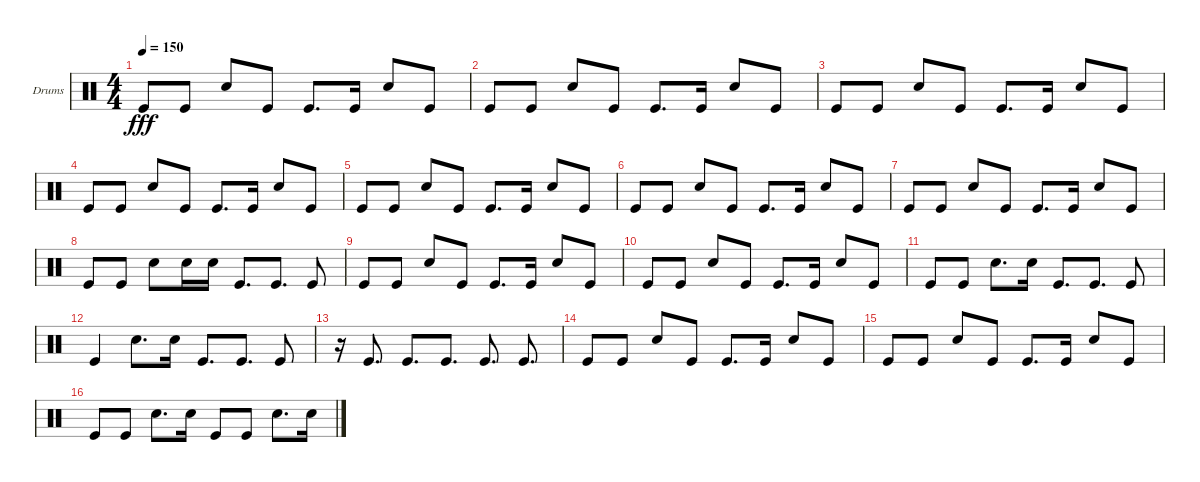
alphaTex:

\defaultSystemsLayout 4
\bracketExtendMode groupsimilarinstruments
\firstSystemTrackNameOrientation horizontal
\otherSystemsTrackNameOrientation horizontal
\track ("Helders" "Drums") {instrument percussion}
\staff {score}
\articulation defaults
\ts (4 4)
\tempo 150
\clef neutral
\ks c "Kick (hit)".8{dy fff} "Kick (hit)".8 "Snare (hit) 2".8 "Kick (hit)".8 "Kick (hit)".8{d} "Kick (hit)".16 "Snare (hit) 2".8 "Kick (hit)".8
|
"Kick (hit)".8 "Kick (hit)".8 "Snare (hit) 2".8 "Kick (hit)".8 "Kick (hit)".8{d} "Kick (hit)".16 "Snare (hit) 2".8 "Kick (hit)".8 |
"Kick (hit)".8 "Kick (hit)".8 "Snare (hit) 2".8 "Kick (hit)".8 "Kick (hit)".8{d} "Kick (hit)".16 "Snare (hit) 2".8 "Kick (hit)".8 |
"Kick (hit)".8 "Kick (hit)".8 "Snare (hit) 2".8 "Kick (hit)".8 "Kick (hit)".8{d} "Kick (hit)".16 "Snare (hit) 2".8 "Kick (hit)".8 |
"Kick (hit)".8 "Kick (hit)".8 "Snare (hit) 2".8 "Kick (hit)".8 "Kick (hit)".8{d} "Kick (hit)".16 "Snare (hit) 2".8 "Kick (hit)".8 |
"Kick (hit)".8 "Kick (hit)".8 "Snare (hit) 2".8 "Kick (hit)".8 "Kick (hit)".8{d} "Kick (hit)".16 "Snare (hit) 2".8 "Kick (hit)".8 |
"Kick (hit)".8 "Kick (hit)".8 "Snare (hit) 2".8 "Kick (hit)".8 "Kick (hit)".8{d} "Kick (hit)".16 "Snare (hit) 2".8 "Kick (hit)".8 |
"Kick (hit)".8 "Kick (hit)".8 "Snare (hit) 2".8 "Snare (hit) 2".16 "Snare (hit) 2".16 "Kick (hit)".8{d} "Kick (hit)".8{d} "Kick (hit)".8 |
"Kick (hit)".8 "Kick (hit)".8 "Snare (hit) 2".8 "Kick (hit)".8 "Kick (hit)".8{d} "Kick (hit)".16 "Snare (hit) 2".8 "Kick (hit)".8 |
"Kick (hit)".8 "Kick (hit)".8 "Snare (hit) 2".8 "Kick (hit)".8 "Kick (hit)".8{d} "Kick (hit)".16 "Snare (hit) 2".8 "Kick (hit)".8 |
"Kick (hit)".8 "Kick (hit)".8 "Snare (hit) 2".8{d} "Snare (hit) 2".16 "Kick (hit)".8{d} "Kick (hit)".8{d} "Kick (hit)".8 |
"Kick (hit)".4 "Snare (hit) 2".8{d} "Snare (hit) 2".16 "Kick (hit)".8{d} "Kick (hit)".8{d} "Kick (hit)".8 |
r.16 "Kick (hit)".8{d} "Kick (hit)".8{d} "Kick (hit)".8{d} "Kick (hit)".8{d} "Kick (hit)".8{d} |
"Kick (hit)".8 "Kick (hit)".8 "Snare (hit) 2".8 "Kick (hit)".8 "Kick (hit)".8{d} "Kick (hit)".16 "Snare (hit) 2".8 "Kick (hit)".8 |
"Kick (hit)".8 "Kick (hit)".8 "Snare (hit) 2".8 "Kick (hit)".8 "Kick (hit)".8{d} "Kick (hit)".16 "Snare (hit) 2".8 "Kick (hit)".8 |
"Kick (hit)".8 "Kick (hit)".8 "Snare (hit) 2".8{d} "Snare (hit) 2".16 "Kick (hit)".8 "Kick (hit)".8 "Snare (hit) 2".8{d} "Snare (hit) 2".16
